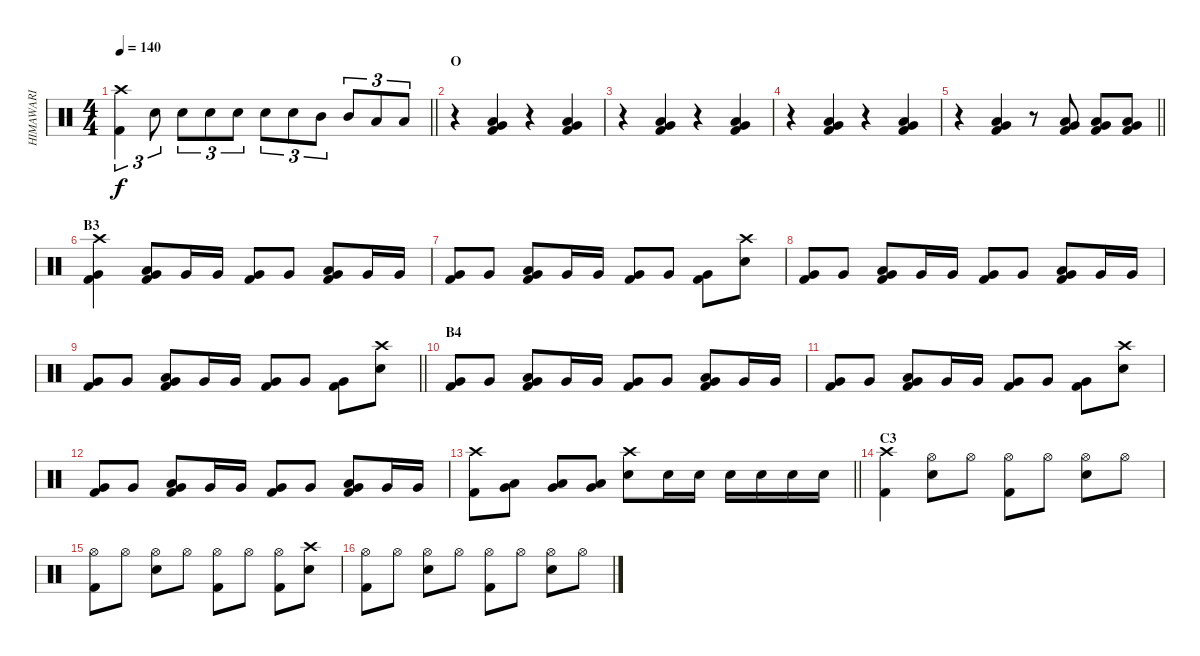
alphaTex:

\track ("HIMAWARI" "HIMAWARI") {instrument percussion}
\staff {score}
\articulation defaults
\ts (4 4)
\tempo 140
\clef neutral
\barLineRight lightlight
\ks c
("Crash high (hit)" "Kick (hit) 2").4{tu (3 2) dy f} "Snare (hit) 2".8{tu (3 2)} "Snare (hit) 2".8{tu (3 2)} "Snare (hit) 2".8{tu (3 2)} "Snare (hit) 2".8{tu (3 2)} "Snare (hit) 2".8{tu (3 2)} "Snare (hit) 2".8{tu (3 2)} "Mid Tom (hit)".8{tu (3 2)} "Mid Tom (hit)".8{tu (3 2)} "Low Tom (hit)".8{tu (3 2)} "Low Tom (hit)".8{tu (3 2)} |
\section ("" "O")
r.4 ("Very Low Tom (hit)" "Low Tom (hit)" "Kick (hit) 2").4 r.4 ("Very Low Tom (hit)" "Low Tom (hit)" "Kick (hit) 2").4 |
r.4 ("Very Low Tom (hit)" "Low Tom (hit)" "Kick (hit) 2").4 r.4 ("Very Low Tom (hit)" "Low Tom (hit)" "Kick (hit) 2").4 |
r.4 ("Very Low Tom (hit)" "Low Tom (hit)" "Kick (hit) 2").4 r.4 ("Very Low Tom (hit)" "Low Tom (hit)" "Kick (hit) 2").4 |
\barLineRight lightlight
r.4 ("Very Low Tom (hit)" "Low Tom (hit)" "Kick (hit) 2").4 r.8 ("Very Low Tom (hit)" "Low Tom (hit)" "Kick (hit) 2").8 ("Very Low Tom (hit)" "Low Tom (hit)" "Kick (hit) 2").8 ("Very Low Tom (hit)" "Low Tom (hit)" "Kick (hit) 2").8 |
\section ("" "B3")
("Crash high (hit)" "Very Low Tom (hit)" "Kick (hit) 2").4 ("Low Tom (hit)" "Very Low Tom (hit)" "Kick (hit) 2").8 "Very Low Tom (hit)".16 "Very Low Tom (hit)".16 ("Very Low Tom (hit)" "Kick (hit) 2").8 "Very Low Tom (hit)".8 ("Low Tom (hit)" "Very Low Tom (hit)" "Kick (hit) 2").8 "Very Low Tom (hit)".16 "Very Low Tom (hit)".16 |
("Very Low Tom (hit)" "Kick (hit) 2").8 "Very Low Tom (hit)".8 ("Low Tom (hit)" "Very Low Tom (hit)" "Kick (hit) 2").8 "Very Low Tom (hit)".16 "Very Low Tom (hit)".16 ("Very Low Tom (hit)" "Kick (hit) 2").8 "Very Low Tom (hit)".8 ("Very Low Tom (hit)" "Kick (hit) 2").8 ("Crash high (hit)" "Snare (hit) 2").8 |
("Very Low Tom (hit)" "Kick (hit) 2").8 "Very Low Tom (hit)".8 ("Low Tom (hit)" "Very Low Tom (hit)" "Kick (hit) 2").8 "Very Low Tom (hit)".16 "Very Low Tom (hit)".16 ("Very Low Tom (hit)" "Kick (hit) 2").8 "Very Low Tom (hit)".8 ("Low Tom (hit)" "Very Low Tom (hit)" "Kick (hit) 2").8 "Very Low Tom (hit)".16 "Very Low Tom (hit)".16 |
\barLineRight lightlight
("Very Low Tom (hit)" "Kick (hit) 2").8 "Very Low Tom (hit)".8 ("Low Tom (hit)" "Very Low Tom (hit)" "Kick (hit) 2").8 "Very Low Tom (hit)".16 "Very Low Tom (hit)".16 ("Very Low Tom (hit)" "Kick (hit) 2").8 "Very Low Tom (hit)".8 ("Very Low Tom (hit)" "Kick (hit) 2").8 ("Crash high (hit)" "Snare (hit) 2").8 |
\section ("" "B4")
("Very Low Tom (hit)" "Kick (hit) 2").8 "Very Low Tom (hit)".8 ("Low Tom (hit)" "Very Low Tom (hit)" "Kick (hit) 2").8 "Very Low Tom (hit)".16 "Very Low Tom (hit)".16 ("Very Low Tom (hit)" "Kick (hit) 2").8 "Very Low Tom (hit)".8 ("Low Tom (hit)" "Very Low Tom (hit)" "Kick (hit) 2").8 "Very Low Tom (hit)".16 "Very Low Tom (hit)".16 |
("Very Low Tom (hit)" "Kick (hit) 2").8 "Very Low Tom (hit)".8 ("Low Tom (hit)" "Very Low Tom (hit)" "Kick (hit) 2").8 "Very Low Tom (hit)".16 "Very Low Tom (hit)".16 ("Very Low Tom (hit)" "Kick (hit) 2").8 "Very Low Tom (hit)".8 ("Very Low Tom (hit)" "Kick (hit) 2").8 ("Crash high (hit)" "Snare (hit) 2").8 |
("Very Low Tom (hit)" "Kick (hit) 2").8 "Very Low Tom (hit)".8 ("Low Tom (hit)" "Very Low Tom (hit)" "Kick (hit) 2").8 "Very Low Tom (hit)".16 "Very Low Tom (hit)".16 ("Very Low Tom (hit)" "Kick (hit) 2").8 "Very Low Tom (hit)".8 ("Low Tom (hit)" "Very Low Tom (hit)" "Kick (hit) 2").8 "Very Low Tom (hit)".16 "Very Low Tom (hit)".16 |
\barLineRight lightlight
("Crash high (hit)" "Kick (hit) 2").8 ("Very Low Tom (hit)" "Low Tom (hit)").8 ("Very Low Tom (hit)" "Low Tom (hit)").8 ("Very Low Tom (hit)" "Low Tom (hit)").8 ("Crash high (hit)" "Snare (hit) 2").8 "Snare (hit) 2".16 "Snare (hit) 2".16 "Snare (hit) 2".16 "Snare (hit) 2".16 "Snare (hit) 2".16 "Snare (hit) 2".16 |
\section ("" "C3")
("Crash high (hit)" "Kick (hit) 2").4 ("Hi-Hat (open)" "Snare (hit) 2").8 "Hi-Hat (open)".8 ("Hi-Hat (open)" "Kick (hit) 2").8 "Hi-Hat (open)".8 ("Hi-Hat (open)" "Snare (hit) 2").8 "Hi-Hat (open)".8 |
("Hi-Hat (open)" "Kick (hit) 2").8 "Hi-Hat (open)".8 ("Hi-Hat (open)" "Snare (hit) 2").8 "Hi-Hat (open)".8 ("Hi-Hat (open)" "Kick (hit) 2").8 "Hi-Hat (open)".8 ("Hi-Hat (open)" "Kick (hit) 2").8 ("Crash high (hit)" "Snare (hit) 2").8 |
("Hi-Hat (open)" "Kick (hit) 2").8 "Hi-Hat (open)".8 ("Hi-Hat (open)" "Snare (hit) 2").8 "Hi-Hat (open)".8 ("Hi-Hat (open)" "Kick (hit) 2").8 "Hi-Hat (open)".8 ("Hi-Hat (open)" "Snare (hit) 2").8 "Hi-Hat (open)".8
